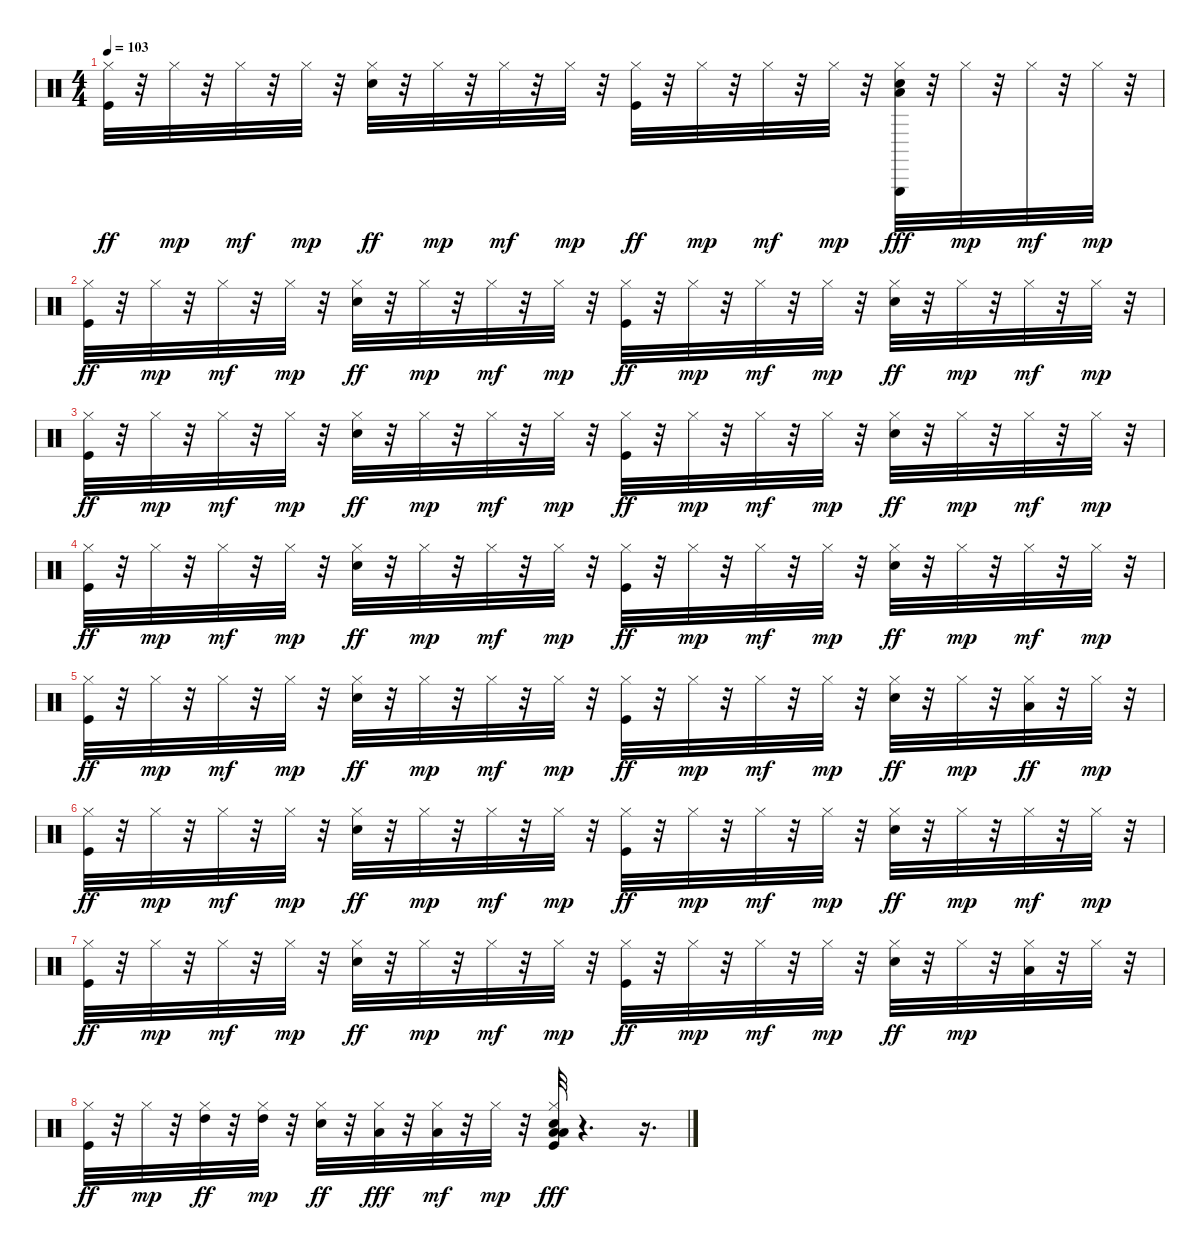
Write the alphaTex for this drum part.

\track "" {instrument percussion}
\staff {score}
\articulation defaults
\ts (4 4)
\tempo 103
\clef neutral
\ks c
("Kick (hit)" "Hi-Hat (closed)").32{dy ff} r.32 "Hi-Hat (closed)".32{dy mp} r.32 "Hi-Hat (closed)".32{dy mf} r.32 "Hi-Hat (closed)".32{dy mp} r.32 ("Snare (hit) 2" "Hi-Hat (closed)").32{dy ff} r.32 "Hi-Hat (closed)".32{dy mp} r.32 "Hi-Hat (closed)".32{dy mf} r.32 "Hi-Hat (closed)".32{dy mp} r.32 ("Kick (hit)" "Hi-Hat (closed)").32{dy ff} r.32 "Hi-Hat (closed)".32{dy mp} r.32 "Hi-Hat (closed)".32{dy mf} r.32 "Hi-Hat (closed)".32{dy mp} r.32 ("Snare (hit) 2" "Hi-Hat (closed)" "Triangle (hit)" "Low Floor Tom (hit)").32{dy fff} r.32 "Hi-Hat (closed)".32{dy mp} r.32 "Hi-Hat (closed)".32{dy mf} r.32 "Hi-Hat (closed)".32{dy mp} r.32 |
("Kick (hit)" "Hi-Hat (closed)").32{dy ff} r.32 "Hi-Hat (closed)".32{dy mp} r.32 "Hi-Hat (closed)".32{dy mf} r.32 "Hi-Hat (closed)".32{dy mp} r.32 ("Snare (hit) 2" "Hi-Hat (closed)").32{dy ff} r.32 "Hi-Hat (closed)".32{dy mp} r.32 "Hi-Hat (closed)".32{dy mf} r.32 "Hi-Hat (closed)".32{dy mp} r.32 ("Kick (hit)" "Hi-Hat (closed)").32{dy ff} r.32 "Hi-Hat (closed)".32{dy mp} r.32 "Hi-Hat (closed)".32{dy mf} r.32 "Hi-Hat (closed)".32{dy mp} r.32 ("Snare (hit) 2" "Hi-Hat (closed)").32{dy ff} r.32 "Hi-Hat (closed)".32{dy mp} r.32 "Hi-Hat (closed)".32{dy mf} r.32 "Hi-Hat (closed)".32{dy mp} r.32 |
("Kick (hit)" "Hi-Hat (closed)").32{dy ff} r.32 "Hi-Hat (closed)".32{dy mp} r.32 "Hi-Hat (closed)".32{dy mf} r.32 "Hi-Hat (closed)".32{dy mp} r.32 ("Snare (hit) 2" "Hi-Hat (closed)").32{dy ff} r.32 "Hi-Hat (closed)".32{dy mp} r.32 "Hi-Hat (closed)".32{dy mf} r.32 "Hi-Hat (closed)".32{dy mp} r.32 ("Kick (hit)" "Hi-Hat (closed)").32{dy ff} r.32 "Hi-Hat (closed)".32{dy mp} r.32 "Hi-Hat (closed)".32{dy mf} r.32 "Hi-Hat (closed)".32{dy mp} r.32 ("Snare (hit) 2" "Hi-Hat (closed)").32{dy ff} r.32 "Hi-Hat (closed)".32{dy mp} r.32 "Hi-Hat (closed)".32{dy mf} r.32 "Hi-Hat (closed)".32{dy mp} r.32 |
("Kick (hit)" "Hi-Hat (closed)").32{dy ff} r.32 "Hi-Hat (closed)".32{dy mp} r.32 "Hi-Hat (closed)".32{dy mf} r.32 "Hi-Hat (closed)".32{dy mp} r.32 ("Snare (hit) 2" "Hi-Hat (closed)").32{dy ff} r.32 "Hi-Hat (closed)".32{dy mp} r.32 "Hi-Hat (closed)".32{dy mf} r.32 "Hi-Hat (closed)".32{dy mp} r.32 ("Kick (hit)" "Hi-Hat (closed)").32{dy ff} r.32 "Hi-Hat (closed)".32{dy mp} r.32 "Hi-Hat (closed)".32{dy mf} r.32 "Hi-Hat (closed)".32{dy mp} r.32 ("Snare (hit) 2" "Hi-Hat (closed)").32{dy ff} r.32 "Hi-Hat (closed)".32{dy mp} r.32 "Hi-Hat (closed)".32{dy mf} r.32 "Hi-Hat (closed)".32{dy mp} r.32 |
("Kick (hit)" "Hi-Hat (closed)").32{dy ff} r.32 "Hi-Hat (closed)".32{dy mp} r.32 "Hi-Hat (closed)".32{dy mf} r.32 "Hi-Hat (closed)".32{dy mp} r.32 ("Snare (hit) 2" "Hi-Hat (closed)").32{dy ff} r.32 "Hi-Hat (closed)".32{dy mp} r.32 "Hi-Hat (closed)".32{dy mf} r.32 "Hi-Hat (closed)".32{dy mp} r.32 ("Kick (hit)" "Hi-Hat (closed)").32{dy ff} r.32 "Hi-Hat (closed)".32{dy mp} r.32 "Hi-Hat (closed)".32{dy mf} r.32 "Hi-Hat (closed)".32{dy mp} r.32 ("Snare (hit) 2" "Hi-Hat (closed)").32{dy ff} r.32 "Hi-Hat (closed)".32{dy mp} r.32 ("Hi-Hat (closed)" "Low Floor Tom (hit)").32{dy ff} r.32 "Hi-Hat (closed)".32{dy mp} r.32 |
("Kick (hit)" "Hi-Hat (closed)").32{dy ff} r.32 "Hi-Hat (closed)".32{dy mp} r.32 "Hi-Hat (closed)".32{dy mf} r.32 "Hi-Hat (closed)".32{dy mp} r.32 ("Snare (hit) 2" "Hi-Hat (closed)").32{dy ff} r.32 "Hi-Hat (closed)".32{dy mp} r.32 "Hi-Hat (closed)".32{dy mf} r.32 "Hi-Hat (closed)".32{dy mp} r.32 ("Kick (hit)" "Hi-Hat (closed)").32{dy ff} r.32 "Hi-Hat (closed)".32{dy mp} r.32 "Hi-Hat (closed)".32{dy mf} r.32 "Hi-Hat (closed)".32{dy mp} r.32 ("Snare (hit) 2" "Hi-Hat (closed)").32{dy ff} r.32 "Hi-Hat (closed)".32{dy mp} r.32 "Hi-Hat (closed)".32{dy mf} r.32 "Hi-Hat (closed)".32{dy mp} r.32 |
("Kick (hit)" "Hi-Hat (closed)").32{dy ff} r.32 "Hi-Hat (closed)".32{dy mp} r.32 "Hi-Hat (closed)".32{dy mf} r.32 "Hi-Hat (closed)".32{dy mp} r.32 ("Snare (hit) 2" "Hi-Hat (closed)").32{dy ff} r.32 "Hi-Hat (closed)".32{dy mp} r.32 "Hi-Hat (closed)".32{dy mf} r.32 "Hi-Hat (closed)".32{dy mp} r.32 ("Kick (hit)" "Hi-Hat (closed)").32{dy ff} r.32 "Hi-Hat (closed)".32{dy mp} r.32 "Hi-Hat (closed)".32{dy mf} r.32 "Hi-Hat (closed)".32{dy mp} r.32 ("Snare (hit) 2" "Hi-Hat (closed)").32{dy ff} r.32 "Hi-Hat (closed)".32{dy mp} r.32 ("Hi-Hat (closed)" "Low Floor Tom (hit)").32 r.32 "Hi-Hat (closed)".32 r.32 |
("Kick (hit)" "Hi-Hat (closed)").32{dy ff} r.32 "Hi-Hat (closed)".32{dy mp} r.32 ("Hi-Hat (closed)" "High Tom (hit)").32{dy ff} r.32 ("Hi-Hat (closed)" "High Tom (hit)").32{dy mp} r.32 ("Snare (hit) 2" "Hi-Hat (closed)").32{dy ff} r.32 ("Hi-Hat (closed)" "Low Tom (hit)").32{dy fff} r.32 ("Hi-Hat (closed)" "Low Tom (hit)").32{dy mf} r.32 "Hi-Hat (closed)".32{dy mp} r.32 ("Kick (hit)" "Snare (hit) 2" "Hi-Hat (closed)" "Low Tom (hit)" "Low Floor Tom (hit)").32{dy fff} r.4{d} r.16{d}
